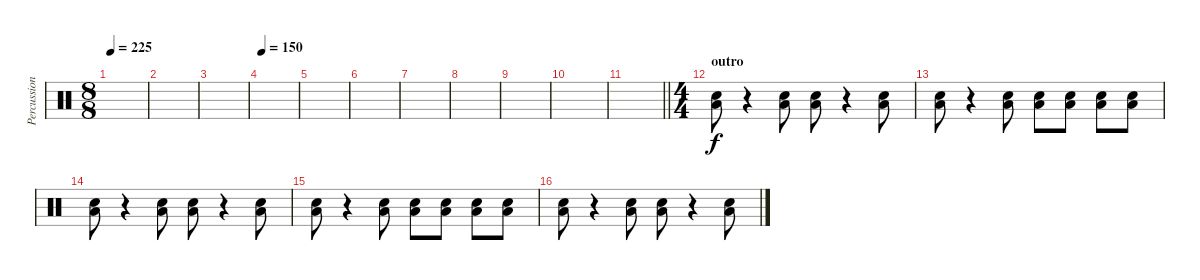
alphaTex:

\track ("Percussion" "Percussion") {instrument percussion}
\staff {score}
\articulation defaults
\ts (8 8)
\tempo 225
\clef neutral
\ks c
|
|
|
\tempo 150
|
|
|
|
|
|
|
\barLineRight lightlight
|
\ts (4 4)
\section ("" "outro")
("Low Tom (hit)" "Snare (hit) 2").8 r.4 ("Low Tom (hit)" "Snare (hit) 2").8 ("Low Tom (hit)" "Snare (hit) 2").8 r.4 ("Low Tom (hit)" "Snare (hit) 2").8 |
("Low Tom (hit)" "Snare (hit) 2").8 r.4 ("Low Tom (hit)" "Snare (hit) 2").8 ("Low Tom (hit)" "Snare (hit) 2").8 ("Low Tom (hit)" "Snare (hit) 2").8 ("Low Tom (hit)" "Snare (hit) 2").8 ("Low Tom (hit)" "Snare (hit) 2").8 |
("Low Tom (hit)" "Snare (hit) 2").8 r.4 ("Low Tom (hit)" "Snare (hit) 2").8 ("Low Tom (hit)" "Snare (hit) 2").8 r.4 ("Low Tom (hit)" "Snare (hit) 2").8 |
("Low Tom (hit)" "Snare (hit) 2").8 r.4 ("Low Tom (hit)" "Snare (hit) 2").8 ("Low Tom (hit)" "Snare (hit) 2").8 ("Low Tom (hit)" "Snare (hit) 2").8 ("Low Tom (hit)" "Snare (hit) 2").8 ("Low Tom (hit)" "Snare (hit) 2").8 |
("Low Tom (hit)" "Snare (hit) 2").8 r.4 ("Low Tom (hit)" "Snare (hit) 2").8 ("Low Tom (hit)" "Snare (hit) 2").8 r.4 ("Low Tom (hit)" "Snare (hit) 2").8
